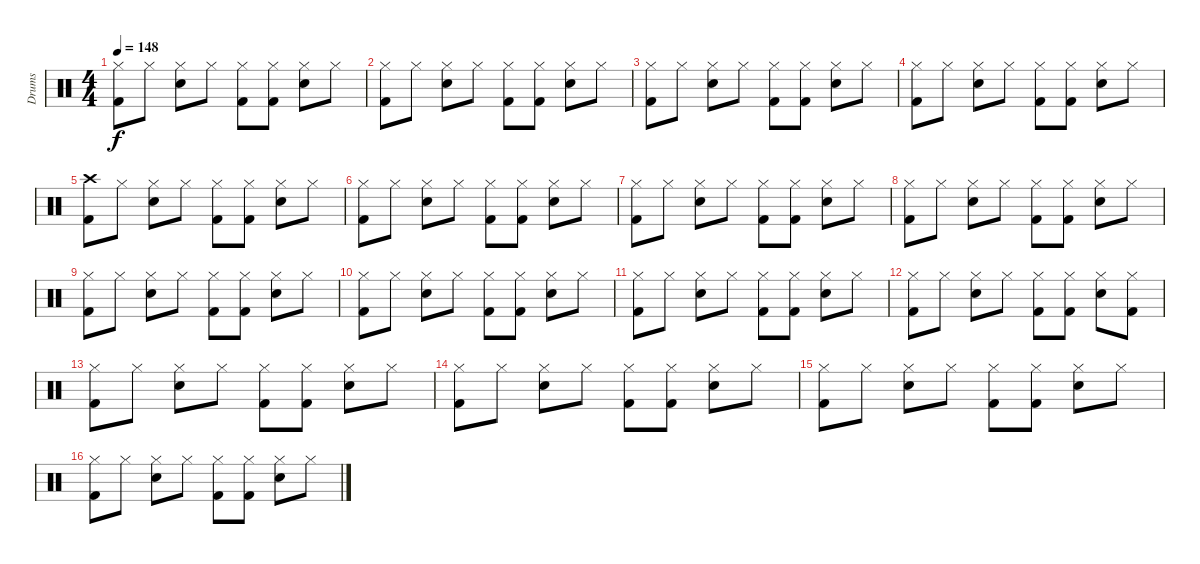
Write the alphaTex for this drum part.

\track ("Drums " "Drums ") {instrument percussion}
\staff {score}
\articulation defaults
\ts (4 4)
\tempo 148
\clef neutral
\ks c
("Hi-Hat (closed)" "Kick (hit) 2").8{dy f} "Hi-Hat (closed)".8 ("Hi-Hat (closed)" "Snare (hit) 2").8 "Hi-Hat (closed)".8 ("Hi-Hat (closed)" "Kick (hit) 2").8 ("Hi-Hat (closed)" "Kick (hit) 2").8 ("Hi-Hat (closed)" "Snare (hit) 2").8 "Hi-Hat (closed)".8 |
("Hi-Hat (closed)" "Kick (hit) 2").8 "Hi-Hat (closed)".8 ("Hi-Hat (closed)" "Snare (hit) 2").8 "Hi-Hat (closed)".8 ("Hi-Hat (closed)" "Kick (hit) 2").8 ("Hi-Hat (closed)" "Kick (hit) 2").8 ("Hi-Hat (closed)" "Snare (hit) 2").8 "Hi-Hat (closed)".8 |
("Hi-Hat (closed)" "Kick (hit) 2").8 "Hi-Hat (closed)".8 ("Hi-Hat (closed)" "Snare (hit) 2").8 "Hi-Hat (closed)".8 ("Hi-Hat (closed)" "Kick (hit) 2").8 ("Hi-Hat (closed)" "Kick (hit) 2").8 ("Hi-Hat (closed)" "Snare (hit) 2").8 "Hi-Hat (closed)".8 |
("Hi-Hat (closed)" "Kick (hit) 2").8 "Hi-Hat (closed)".8 ("Hi-Hat (closed)" "Snare (hit) 2").8 "Hi-Hat (closed)".8 ("Hi-Hat (closed)" "Kick (hit) 2").8 ("Hi-Hat (closed)" "Kick (hit) 2").8 ("Hi-Hat (closed)" "Snare (hit) 2").8 "Hi-Hat (closed)".8 |
("Crash high (hit)" "Kick (hit) 2").8 "Hi-Hat (closed)".8 ("Hi-Hat (closed)" "Snare (hit) 2").8 "Hi-Hat (closed)".8 ("Hi-Hat (closed)" "Kick (hit) 2").8 ("Hi-Hat (closed)" "Kick (hit) 2").8 ("Hi-Hat (closed)" "Snare (hit) 2").8 "Hi-Hat (closed)".8 |
("Hi-Hat (closed)" "Kick (hit) 2").8 "Hi-Hat (closed)".8 ("Hi-Hat (closed)" "Snare (hit) 2").8 "Hi-Hat (closed)".8 ("Hi-Hat (closed)" "Kick (hit) 2").8 ("Hi-Hat (closed)" "Kick (hit) 2").8 ("Hi-Hat (closed)" "Snare (hit) 2").8 "Hi-Hat (closed)".8 |
("Hi-Hat (closed)" "Kick (hit) 2").8 "Hi-Hat (closed)".8 ("Hi-Hat (closed)" "Snare (hit) 2").8 "Hi-Hat (closed)".8 ("Hi-Hat (closed)" "Kick (hit) 2").8 ("Hi-Hat (closed)" "Kick (hit) 2").8 ("Hi-Hat (closed)" "Snare (hit) 2").8 "Hi-Hat (closed)".8 |
("Hi-Hat (closed)" "Kick (hit) 2").8 "Hi-Hat (closed)".8 ("Hi-Hat (closed)" "Snare (hit) 2").8 "Hi-Hat (closed)".8 ("Hi-Hat (closed)" "Kick (hit) 2").8 ("Hi-Hat (closed)" "Kick (hit) 2").8 ("Hi-Hat (closed)" "Snare (hit) 2").8 "Hi-Hat (closed)".8 |
("Hi-Hat (closed)" "Kick (hit) 2").8 "Hi-Hat (closed)".8 ("Hi-Hat (closed)" "Snare (hit) 2").8 "Hi-Hat (closed)".8 ("Hi-Hat (closed)" "Kick (hit) 2").8 ("Hi-Hat (closed)" "Kick (hit) 2").8 ("Hi-Hat (closed)" "Snare (hit) 2").8 "Hi-Hat (closed)".8 |
("Hi-Hat (closed)" "Kick (hit) 2").8 "Hi-Hat (closed)".8 ("Hi-Hat (closed)" "Snare (hit) 2").8 "Hi-Hat (closed)".8 ("Hi-Hat (closed)" "Kick (hit) 2").8 ("Hi-Hat (closed)" "Kick (hit) 2").8 ("Hi-Hat (closed)" "Snare (hit) 2").8 "Hi-Hat (closed)".8 |
("Hi-Hat (closed)" "Kick (hit) 2").8 "Hi-Hat (closed)".8 ("Hi-Hat (closed)" "Snare (hit) 2").8 "Hi-Hat (closed)".8 ("Hi-Hat (closed)" "Kick (hit) 2").8 ("Hi-Hat (closed)" "Kick (hit) 2").8 ("Hi-Hat (closed)" "Snare (hit) 2").8 "Hi-Hat (closed)".8 |
("Hi-Hat (closed)" "Kick (hit) 2").8 "Hi-Hat (closed)".8 ("Hi-Hat (closed)" "Snare (hit) 2").8 "Hi-Hat (closed)".8 ("Hi-Hat (closed)" "Kick (hit) 2").8 ("Hi-Hat (closed)" "Kick (hit) 2").8 ("Hi-Hat (closed)" "Snare (hit) 2").8 ("Hi-Hat (closed)" "Kick (hit) 2").8 |
("Hi-Hat (closed)" "Kick (hit) 2").8 "Hi-Hat (closed)".8 ("Hi-Hat (closed)" "Snare (hit) 2").8 "Hi-Hat (closed)".8 ("Hi-Hat (closed)" "Kick (hit) 2").8 ("Hi-Hat (closed)" "Kick (hit) 2").8 ("Hi-Hat (closed)" "Snare (hit) 2").8 "Hi-Hat (closed)".8 |
("Hi-Hat (closed)" "Kick (hit) 2").8 "Hi-Hat (closed)".8 ("Hi-Hat (closed)" "Snare (hit) 2").8 "Hi-Hat (closed)".8 ("Hi-Hat (closed)" "Kick (hit) 2").8 ("Hi-Hat (closed)" "Kick (hit) 2").8 ("Hi-Hat (closed)" "Snare (hit) 2").8 "Hi-Hat (closed)".8 |
("Hi-Hat (closed)" "Kick (hit) 2").8 "Hi-Hat (closed)".8 ("Hi-Hat (closed)" "Snare (hit) 2").8 "Hi-Hat (closed)".8 ("Hi-Hat (closed)" "Kick (hit) 2").8 ("Hi-Hat (closed)" "Kick (hit) 2").8 ("Hi-Hat (closed)" "Snare (hit) 2").8 "Hi-Hat (closed)".8 |
("Hi-Hat (closed)" "Kick (hit) 2").8 "Hi-Hat (closed)".8 ("Hi-Hat (closed)" "Snare (hit) 2").8 "Hi-Hat (closed)".8 ("Hi-Hat (closed)" "Kick (hit) 2").8 ("Hi-Hat (closed)" "Kick (hit) 2").8 ("Hi-Hat (closed)" "Snare (hit) 2").8 "Hi-Hat (closed)".8
